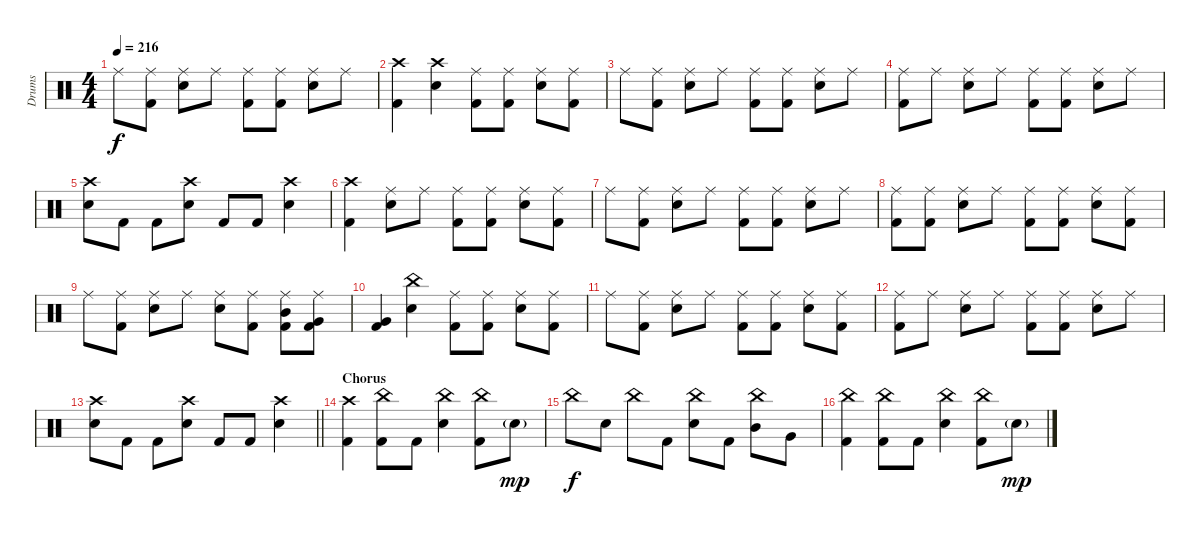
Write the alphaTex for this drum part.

\track ("Drums" "Drums") {instrument percussion}
\staff {score}
\articulation defaults
\ts (4 4)
\tempo 216
\clef neutral
\ks c "Ride (middle)".8{dy f}
("Ride (middle)" "Kick (hit) 2").8 ("Ride (middle)" "Electric Snare (hit)").8 "Ride (middle)".8 ("Ride (middle)" "Kick (hit) 2").8 ("Ride (middle)" "Kick (hit) 2").8 ("Ride (middle)" "Electric Snare (hit)").8 "Ride (middle)".8 |
("Crash high (hit)" "Kick (hit) 2").4 ("Crash high (hit)" "Electric Snare (hit)").4 ("Ride (middle)" "Kick (hit) 2").8 ("Ride (middle)" "Kick (hit) 2").8 ("Ride (middle)" "Electric Snare (hit)").8 ("Ride (middle)" "Kick (hit) 2").8 |
"Ride (middle)".8 ("Ride (middle)" "Kick (hit) 2").8 ("Ride (middle)" "Electric Snare (hit)").8 "Ride (middle)".8 ("Ride (middle)" "Kick (hit) 2").8 ("Ride (middle)" "Kick (hit) 2").8 ("Ride (middle)" "Electric Snare (hit)").8 "Ride (middle)".8 |
("Ride (middle)" "Kick (hit) 2").8 "Ride (middle)".8 ("Ride (middle)" "Electric Snare (hit)").8 "Ride (middle)".8 ("Ride (middle)" "Kick (hit) 2").8 ("Ride (middle)" "Kick (hit) 2").8 ("Ride (middle)" "Electric Snare (hit)").8 "Ride (middle)".8 |
("Crash high (hit)" "Electric Snare (hit)").8 "Kick (hit) 2".8 "Kick (hit) 2".8 ("Crash high (hit)" "Electric Snare (hit)").8 "Kick (hit) 2".8 "Kick (hit) 2".8 ("Crash high (hit)" "Electric Snare (hit)").4 |
("Crash high (hit)" "Kick (hit) 2").4 ("Ride (middle)" "Electric Snare (hit)").8 "Ride (middle)".8 ("Ride (middle)" "Kick (hit) 2").8 ("Ride (middle)" "Kick (hit) 2").8 ("Ride (middle)" "Electric Snare (hit)").8 ("Ride (middle)" "Kick (hit) 2").8 |
"Ride (middle)".8 ("Ride (middle)" "Kick (hit) 2").8 ("Ride (middle)" "Electric Snare (hit)").8 "Ride (middle)".8 ("Ride (middle)" "Kick (hit) 2").8 ("Ride (middle)" "Kick (hit) 2").8 ("Ride (middle)" "Electric Snare (hit)").8 "Ride (middle)".8 |
("Ride (middle)" "Kick (hit) 2").8 ("Ride (middle)" "Kick (hit) 2").8 ("Ride (middle)" "Electric Snare (hit)").8 "Ride (middle)".8 ("Ride (middle)" "Kick (hit) 2").8 ("Ride (middle)" "Kick (hit) 2").8 ("Ride (middle)" "Electric Snare (hit)").8 ("Ride (middle)" "Kick (hit) 2").8 |
"Ride (middle)".8 ("Ride (middle)" "Kick (hit) 2").8 ("Ride (middle)" "Electric Snare (hit)").8 "Ride (middle)".8 ("Ride (middle)" "Electric Snare (hit)").8 ("Ride (middle)" "Kick (hit) 2").8 ("Ride (middle)" "Mid Tom (hit)" "Kick (hit) 2").8 ("Ride (middle)" "Very Low Tom (hit)" "Kick (hit) 2").8 |
("Very Low Tom (hit)" "Kick (hit) 2").4 ("China (hit)" "Electric Snare (hit)").4 ("Ride (middle)" "Kick (hit) 2").8 ("Ride (middle)" "Kick (hit) 2").8 ("Ride (middle)" "Electric Snare (hit)").8 ("Ride (middle)" "Kick (hit) 2").8 |
"Ride (middle)".8 ("Ride (middle)" "Kick (hit) 2").8 ("Ride (middle)" "Electric Snare (hit)").8 "Ride (middle)".8 ("Ride (middle)" "Kick (hit) 2").8 ("Ride (middle)" "Kick (hit) 2").8 ("Ride (middle)" "Electric Snare (hit)").8 ("Ride (middle)" "Kick (hit) 2").8 |
("Ride (middle)" "Kick (hit) 2").8 "Ride (middle)".8 ("Ride (middle)" "Electric Snare (hit)").8 "Ride (middle)".8 ("Ride (middle)" "Kick (hit) 2").8 ("Ride (middle)" "Kick (hit) 2").8 ("Ride (middle)" "Electric Snare (hit)").8 "Ride (middle)".8 |
\barLineRight lightlight
("Crash high (hit)" "Electric Snare (hit)").8 "Kick (hit) 2".8 "Kick (hit) 2".8 ("Crash high (hit)" "Electric Snare (hit)").8 "Kick (hit) 2".8 "Kick (hit) 2".8 ("Crash high (hit)" "Electric Snare (hit)").4 |
\section ("" "Chorus")
("Crash high (hit)" "Kick (hit) 2").4 ("China (hit)" "Kick (hit) 2").8 "Kick (hit) 2".8 ("China (hit)" "Electric Snare (hit)").4 ("China (hit)" "Kick (hit) 2").8 "Electric Snare (hit)"{g}.8{dy mp} |
"China (hit)".8{dy f} "Electric Snare (hit)".8 "China (hit)".8 "Kick (hit) 2".8 ("China (hit)" "Electric Snare (hit)").8 "Kick (hit) 2".8 ("China (hit)" "Mid Tom (hit)").8 "Very Low Tom (hit)".8 |
("China (hit)" "Kick (hit) 2").4 ("China (hit)" "Kick (hit) 2").8 "Kick (hit) 2".8 ("China (hit)" "Electric Snare (hit)").4 ("China (hit)" "Kick (hit) 2").8 "Electric Snare (hit)"{g}.8{dy mp}
